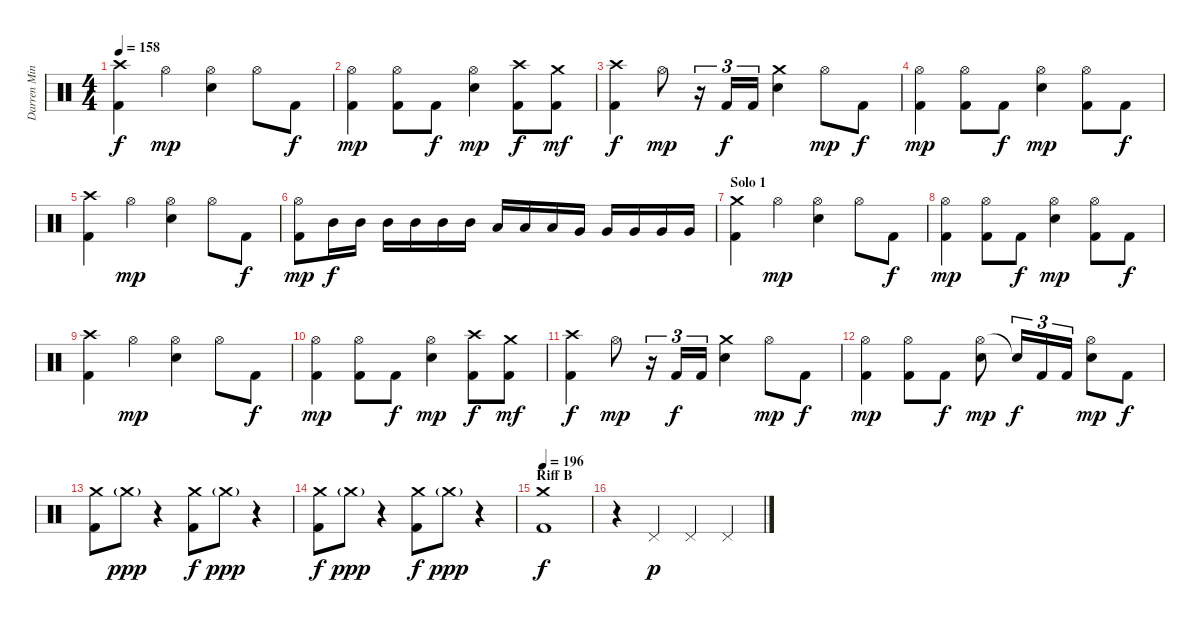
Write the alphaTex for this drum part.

\track ("Darren Minter" "Darren Min") {instrument percussion}
\staff {score}
\articulation defaults
\ts (4 4)
\tempo 158
\clef neutral
\ks c
("Kick (hit) 2" "Crash high (hit)").4{dy f} "Hi-Hat (open)".4{dy mp} ("Hi-Hat (open)" "Snare (hit) 2").4 "Hi-Hat (open)".8 "Kick (hit) 2".8{dy f} |
("Kick (hit) 2" "Hi-Hat (open)").4{dy mp} ("Kick (hit) 2" "Hi-Hat (open)").8 "Kick (hit) 2".8{dy f} ("Hi-Hat (open)" "Snare (hit) 2").4{dy mp} ("Kick (hit) 2" "Crash high (hit)").8{dy f} ("Kick (hit) 2" "Crash medium (hit)").8{dy mf} |
("Kick (hit) 2" "Crash high (hit)").4{dy f} "Hi-Hat (open)".8{dy mp} r.16{tu (3 2)} "Kick (hit) 2".16{tu (3 2) dy f} "Kick (hit) 2".16{tu (3 2)} ("Crash medium (hit)" "Snare (hit) 2").4 "Hi-Hat (open)".8{dy mp} "Kick (hit) 2".8{dy f} |
("Kick (hit) 2" "Hi-Hat (open)").4{dy mp} ("Kick (hit) 2" "Hi-Hat (open)").8 "Kick (hit) 2".8{dy f} ("Hi-Hat (open)" "Snare (hit) 2").4{dy mp} ("Kick (hit) 2" "Hi-Hat (open)").8 "Kick (hit) 2".8{dy f} |
("Kick (hit) 2" "Crash high (hit)").4 "Hi-Hat (open)".4{dy mp} ("Hi-Hat (open)" "Snare (hit) 2").4 "Hi-Hat (open)".8 "Kick (hit) 2".8{dy f} |
("Kick (hit) 2" "Hi-Hat (open)").8{dy mp} "Mid Tom (hit)".16{dy f} "Mid Tom (hit)".16 "Mid Tom (hit)".16 "Mid Tom (hit)".16 "Mid Tom (hit)".16 "Mid Tom (hit)".16 "Low Tom (hit)".16 "Low Tom (hit)".16 "Low Tom (hit)".16 "Very Low Tom (hit)".16 "Very Low Tom (hit)".16 "Very Low Tom (hit)".16 "Very Low Tom (hit)".16 "Very Low Tom (hit)".16 |
\section ("" "Solo 1")
("Kick (hit) 2" "Crash medium (hit)").4 "Hi-Hat (open)".4{dy mp} ("Hi-Hat (open)" "Snare (hit) 2").4 "Hi-Hat (open)".8 "Kick (hit) 2".8{dy f} |
("Kick (hit) 2" "Hi-Hat (open)").4{dy mp} ("Kick (hit) 2" "Hi-Hat (open)").8 "Kick (hit) 2".8{dy f} ("Hi-Hat (open)" "Snare (hit) 2").4{dy mp} ("Kick (hit) 2" "Hi-Hat (open)").8 "Kick (hit) 2".8{dy f} |
("Kick (hit) 2" "Crash high (hit)").4 "Hi-Hat (open)".4{dy mp} ("Hi-Hat (open)" "Snare (hit) 2").4 "Hi-Hat (open)".8 "Kick (hit) 2".8{dy f} |
("Kick (hit) 2" "Hi-Hat (open)").4{dy mp} ("Kick (hit) 2" "Hi-Hat (open)").8 "Kick (hit) 2".8{dy f} ("Hi-Hat (open)" "Snare (hit) 2").4{dy mp} ("Kick (hit) 2" "Crash high (hit)").8{dy f} ("Kick (hit) 2" "Crash medium (hit)").8{dy mf} |
("Kick (hit) 2" "Crash high (hit)").4{dy f} "Hi-Hat (open)".8{dy mp} r.16{tu (3 2)} "Kick (hit) 2".16{tu (3 2) dy f} "Kick (hit) 2".16{tu (3 2)} ("Crash medium (hit)" "Snare (hit) 2").4 "Hi-Hat (open)".8{dy mp} "Kick (hit) 2".8{dy f} |
("Kick (hit) 2" "Hi-Hat (open)").4{dy mp} ("Kick (hit) 2" "Hi-Hat (open)").8 "Kick (hit) 2".8{dy f} ("Hi-Hat (open)" "Snare (hit) 2").8{dy mp} "Snare (hit)"{t}.16{tu (3 2) dy f} "Kick (hit) 2".16{tu (3 2)} "Kick (hit) 2".16{tu (3 2)} ("Hi-Hat (open)" "Snare (hit) 2").8{dy mp} "Kick (hit) 2".8{dy f} |
("Kick (hit) 2" "Crash medium (hit)").8 "Crash medium (hit)"{g}.8{dy ppp} r.4 ("Kick (hit) 2" "Crash medium (hit)").8{dy f} "Crash medium (hit)"{g}.8{dy ppp} r.4 |
("Kick (hit) 2" "Crash medium (hit)").8{dy f} "Crash medium (hit)"{g}.8{dy ppp} r.4 ("Kick (hit) 2" "Crash medium (hit)").8{dy f} "Crash medium (hit)"{g}.8{dy ppp} r.4 |
\section ("" "Riff B")
\tempo 196
("Kick (hit) 2" "Crash medium (hit)").1{dy f} |
r.4 "Pedal Hi-Hat (hit)".4{dy p} "Pedal Hi-Hat (hit)".4 "Pedal Hi-Hat (hit)".4
